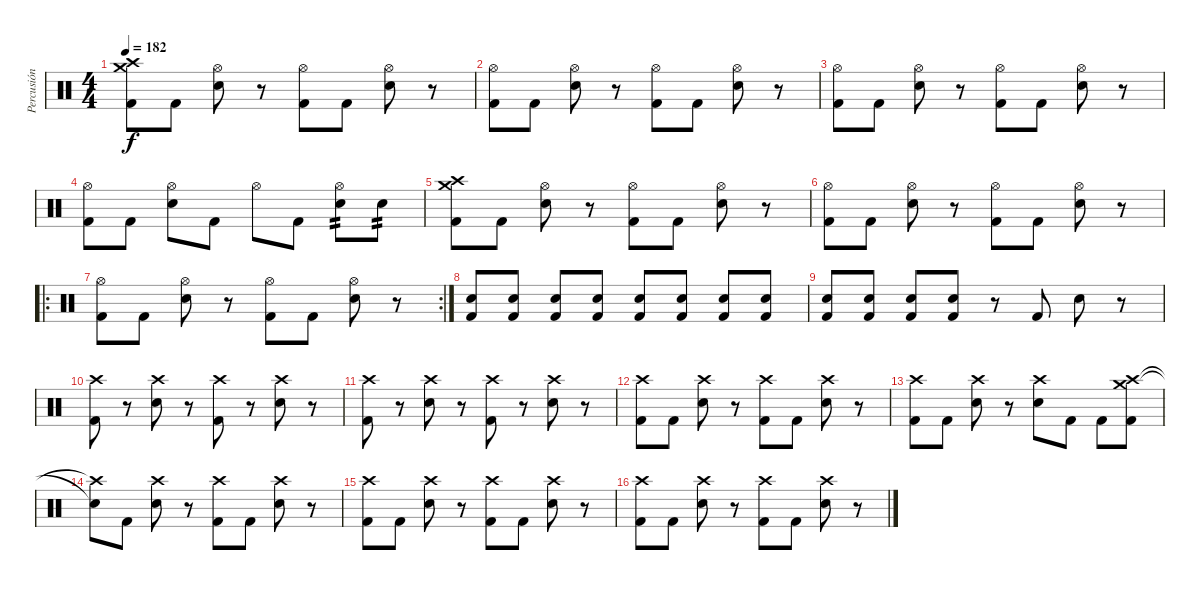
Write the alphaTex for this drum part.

\track ("Percusión Kuliá" "Percusión ") {instrument percussion}
\staff {score}
\articulation defaults
\ts (4 4)
\tempo 182
\clef neutral
\ks c
("Crash high (hit)" "Crash medium (hit)" "Kick (hit) 2").8{dy f} "Kick (hit) 2".8 ("Hi-Hat (open)" "Electric Snare (hit)").8 r.8 ("Hi-Hat (open)" "Kick (hit) 2").8 "Kick (hit) 2".8 ("Hi-Hat (open)" "Electric Snare (hit)").8 r.8 |
("Hi-Hat (open)" "Kick (hit) 2").8 "Kick (hit) 2".8 ("Hi-Hat (open)" "Electric Snare (hit)").8 r.8 ("Hi-Hat (open)" "Kick (hit) 2").8 "Kick (hit) 2".8 ("Hi-Hat (open)" "Electric Snare (hit)").8 r.8 |
("Hi-Hat (open)" "Kick (hit) 2").8 "Kick (hit) 2".8 ("Hi-Hat (open)" "Electric Snare (hit)").8 r.8 ("Hi-Hat (open)" "Kick (hit) 2").8 "Kick (hit) 2".8 ("Hi-Hat (open)" "Electric Snare (hit)").8 r.8 |
("Hi-Hat (open)" "Kick (hit) 2").8 "Kick (hit) 2".8 ("Hi-Hat (open)" "Electric Snare (hit)").8 "Kick (hit) 2".8 "Hi-Hat (open)".8 "Kick (hit) 2".8 ("Hi-Hat (open)" "Electric Snare (hit)").8{tp 2} "Electric Snare (hit)".8{tp 2} |
("Crash high (hit)" "Crash medium (hit)" "Kick (hit) 2").8 "Kick (hit) 2".8 ("Hi-Hat (open)" "Electric Snare (hit)").8 r.8 ("Hi-Hat (open)" "Kick (hit) 2").8 "Kick (hit) 2".8 ("Hi-Hat (open)" "Electric Snare (hit)").8 r.8 |
("Hi-Hat (open)" "Kick (hit) 2").8 "Kick (hit) 2".8 ("Hi-Hat (open)" "Electric Snare (hit)").8 r.8 ("Hi-Hat (open)" "Kick (hit) 2").8 "Kick (hit) 2".8 ("Hi-Hat (open)" "Electric Snare (hit)").8 r.8 |
\ro
\rc 2
("Hi-Hat (open)" "Kick (hit) 2").8 "Kick (hit) 2".8 ("Hi-Hat (open)" "Electric Snare (hit)").8 r.8 ("Hi-Hat (open)" "Kick (hit) 2").8 "Kick (hit) 2".8 ("Hi-Hat (open)" "Electric Snare (hit)").8 r.8 |
("Electric Snare (hit)" "Kick (hit) 2").8{volume 12} ("Electric Snare (hit)" "Kick (hit) 2").8{volume 16} ("Electric Snare (hit)" "Kick (hit) 2").8 ("Electric Snare (hit)" "Kick (hit) 2").8 ("Electric Snare (hit)" "Kick (hit) 2").8 ("Electric Snare (hit)" "Kick (hit) 2").8 ("Electric Snare (hit)" "Kick (hit) 2").8 ("Electric Snare (hit)" "Kick (hit) 2").8 |
("Electric Snare (hit)" "Kick (hit) 2").8 ("Electric Snare (hit)" "Kick (hit) 2").8 ("Electric Snare (hit)" "Kick (hit) 2").8 ("Electric Snare (hit)" "Kick (hit) 2").8 r.8 "Kick (hit) 2".8 "Electric Snare (hit)".8 r.8 |
("Crash high (hit)" "Kick (hit) 2").8 r.8 ("Crash high (hit)" "Electric Snare (hit)").8 r.8 ("Crash high (hit)" "Kick (hit) 2").8 r.8 ("Crash high (hit)" "Electric Snare (hit)").8 r.8 |
("Crash high (hit)" "Kick (hit) 2").8 r.8 ("Crash high (hit)" "Electric Snare (hit)").8 r.8 ("Crash high (hit)" "Kick (hit) 2").8 r.8 ("Crash high (hit)" "Electric Snare (hit)").8 r.8 |
("Crash high (hit)" "Kick (hit) 2").8 "Kick (hit) 2".8 ("Crash high (hit)" "Electric Snare (hit)").8 r.8 ("Crash high (hit)" "Kick (hit) 2").8 "Kick (hit) 2".8 ("Crash high (hit)" "Electric Snare (hit)").8 r.8 |
("Crash high (hit)" "Kick (hit) 2").8 "Kick (hit) 2".8 ("Crash high (hit)" "Electric Snare (hit)").8 r.8 ("Crash high (hit)" "Electric Snare (hit)").8 "Kick (hit) 2".8 "Kick (hit) 2".8 ("Crash high (hit)" "Crash medium (hit)" "Kick (hit) 2").8 |
("Snare (hit)"{t} "Crash high (hit)"{t}).8 "Kick (hit) 2".8 ("Crash high (hit)" "Electric Snare (hit)").8 r.8 ("Crash high (hit)" "Kick (hit) 2").8 "Kick (hit) 2".8 ("Crash high (hit)" "Electric Snare (hit)").8 r.8 |
("Crash high (hit)" "Kick (hit) 2").8 "Kick (hit) 2".8 ("Crash high (hit)" "Electric Snare (hit)").8 r.8 ("Crash high (hit)" "Kick (hit) 2").8 "Kick (hit) 2".8 ("Crash high (hit)" "Electric Snare (hit)").8 r.8 |
("Crash high (hit)" "Kick (hit) 2").8 "Kick (hit) 2".8 ("Crash high (hit)" "Electric Snare (hit)").8 r.8 ("Crash high (hit)" "Kick (hit) 2").8 "Kick (hit) 2".8 ("Crash high (hit)" "Electric Snare (hit)").8 r.8
